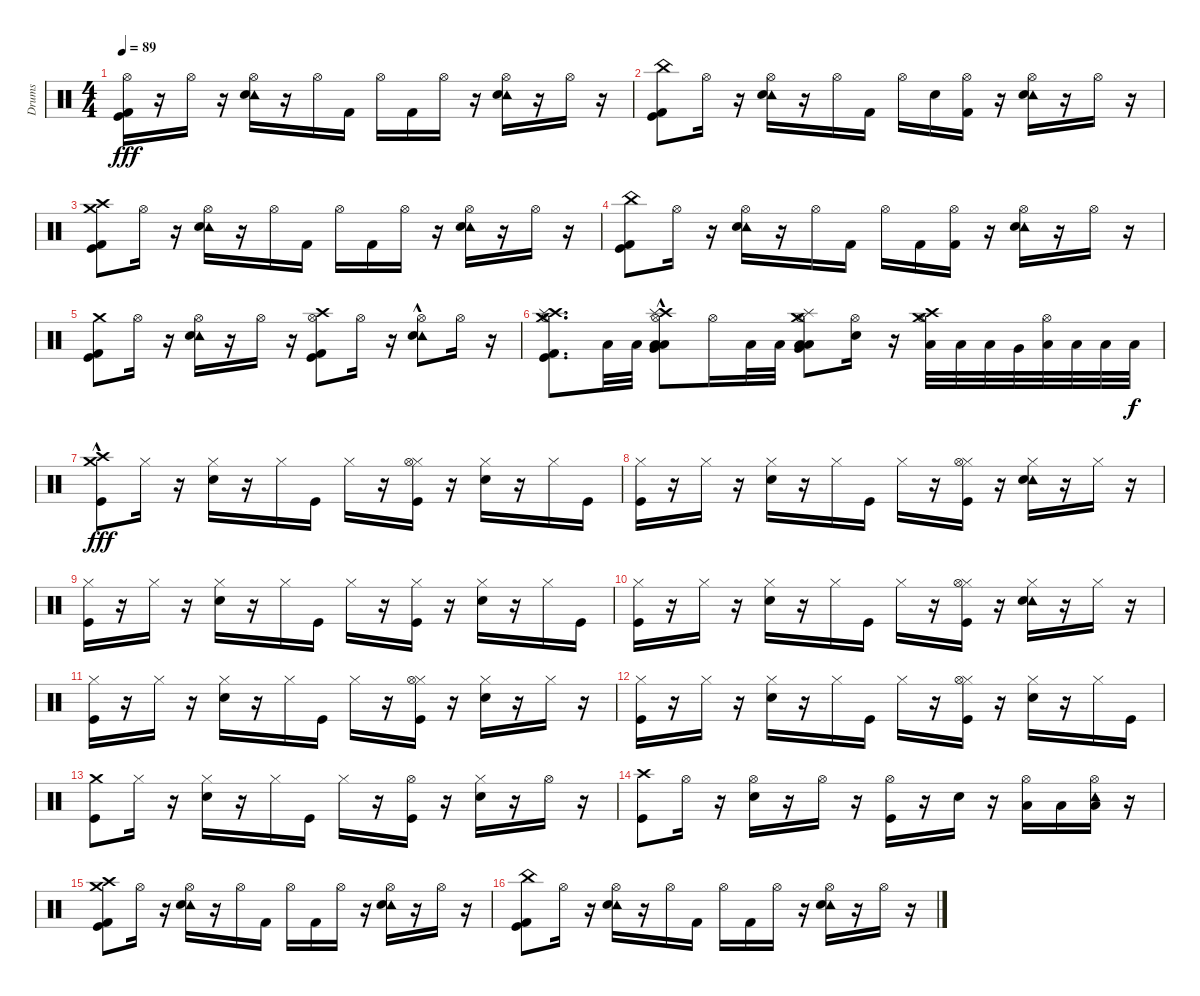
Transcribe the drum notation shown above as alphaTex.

\track ("Drums" "Drums") {instrument percussion}
\staff {score}
\articulation defaults
\ts (4 4)
\tempo 89
\clef neutral
\ks c
("Kick (hit) 2" "Kick (hit)" "Hi-Hat (open)").16{dy fff} r.16 "Hi-Hat (open)".16 r.16 ("Hi-Hat (open)" "Tambourine (hit)" "Snare (hit) 2").16 r.16 "Hi-Hat (open)".16 "Kick (hit) 2".16 "Hi-Hat (open)".16 "Kick (hit) 2".16 "Hi-Hat (open)".16 r.16 ("Hi-Hat (open)" "Tambourine (hit)" "Snare (hit) 2").16 r.16 "Hi-Hat (open)".16 r.16 |
("Kick (hit)" "Kick (hit) 2" "China (hit)").8 "Hi-Hat (open)".16 r.16 ("Hi-Hat (open)" "Tambourine (hit)" "Snare (hit) 2").16 r.16 "Hi-Hat (open)".16 "Kick (hit) 2".16 "Hi-Hat (open)".16 "Snare (hit) 2".16 ("Hi-Hat (open)" "Kick (hit) 2").16 r.16 ("Hi-Hat (open)" "Tambourine (hit)" "Snare (hit) 2").16 r.16 "Hi-Hat (open)".16 r.16 |
("Kick (hit)" "Kick (hit) 2" "Crash high (hit)" "Crash medium (hit)").8 "Hi-Hat (open)".16 r.16 ("Hi-Hat (open)" "Tambourine (hit)" "Snare (hit) 2").16 r.16 "Hi-Hat (open)".16 "Kick (hit) 2".16 "Hi-Hat (open)".16 "Kick (hit) 2".16 "Hi-Hat (open)".16 r.16 ("Hi-Hat (open)" "Tambourine (hit)" "Snare (hit) 2").16 r.16 "Hi-Hat (open)".16 r.16 |
("Kick (hit)" "Kick (hit) 2" "China (hit)").8 "Hi-Hat (open)".16 r.16 ("Hi-Hat (open)" "Tambourine (hit)" "Snare (hit) 2").16 r.16 "Hi-Hat (open)".16 "Kick (hit) 2".16 "Hi-Hat (open)".16 "Kick (hit) 2".16 ("Hi-Hat (open)" "Kick (hit) 2").16 r.16 ("Hi-Hat (open)" "Tambourine (hit)" "Snare (hit) 2").16 r.16 "Hi-Hat (open)".16 r.16 |
("Kick (hit) 2" "Kick (hit)" "Crash medium (hit)").8 "Hi-Hat (open)".16 r.16 ("Hi-Hat (open)" "Tambourine (hit)" "Snare (hit) 2").16 r.16 "Hi-Hat (open)".16 r.16 ("Hi-Hat (open)" "Crash high (hit)" "Kick (hit) 2" "Kick (hit)").8 "Hi-Hat (open)".16 r.16 ("Hi-Hat (open)" "Tambourine (hit)" "Snare (hit) 2"{hac}).8 "Hi-Hat (open)".16 r.16 |
("Kick (hit)" "Kick (hit) 2" "Crash medium (hit)" "Crash high (hit)" "Hi-Hat (open)" "Splash (hit)").8{d} "Low Tom (hit)".32 "Low Tom (hit)".32 ("Hi-Hat (open)" "Crash high (hit)"{hac} "Splash (hit)" "Very Low Tom (hit)" "Low Floor Tom (hit)" "Low Tom (hit)").8 "Hi-Hat (open)".16 "Low Tom (hit)".32 "Low Tom (hit)".32 ("Low Floor Tom (hit)" "Hi-Hat (open)" "Splash (hit)" "Crash medium (hit)" "Very Low Tom (hit)" "Low Tom (hit)").8 ("Hi-Hat (open)" "Snare (hit) 2").16 r.16 ("Hi-Hat (open)" "Crash medium (hit)" "Crash high (hit)" "Low Tom (hit)").32 "Low Tom (hit)".32 "Low Tom (hit)".32 "Very Low Tom (hit)".32 ("Hi-Hat (open)" "Low Floor Tom (hit)").32 "Low Floor Tom (hit)".32 "Low Floor Tom (hit)".32 "Low Floor Tom (hit)".32{dy f} |
("Crash medium (hit)"{hac} "Crash high (hit)"{hac} "Kick (hit)").8{dy fff} "Hi-Hat (closed)".16 r.16 ("Hi-Hat (closed)" "Snare (hit) 2").16 r.16 "Hi-Hat (closed)".16 "Kick (hit)".16 "Hi-Hat (closed)".16 r.16 ("Hi-Hat (closed)" "Kick (hit)" "Hi-Hat (open)").16 r.16 ("Hi-Hat (closed)" "Snare (hit) 2").16 r.16 "Hi-Hat (closed)".16 "Kick (hit)".16 |
("Kick (hit)" "Hi-Hat (closed)").16 r.16 "Hi-Hat (closed)".16 r.16 ("Hi-Hat (closed)" "Snare (hit) 2").16 r.16 "Hi-Hat (closed)".16 "Kick (hit)".16 "Hi-Hat (closed)".16 r.16 ("Kick (hit)" "Hi-Hat (closed)" "Hi-Hat (open)").16 r.16 ("Hi-Hat (closed)" "Tambourine (hit)" "Snare (hit) 2").16 r.16 "Hi-Hat (closed)".16 r.16 |
("Hi-Hat (closed)" "Kick (hit)").16 r.16 "Hi-Hat (closed)".16 r.16 ("Hi-Hat (closed)" "Snare (hit) 2").16 r.16 "Hi-Hat (closed)".16 "Kick (hit)".16 "Hi-Hat (closed)".16 r.16 ("Hi-Hat (closed)" "Kick (hit)").16 r.16 ("Hi-Hat (closed)" "Snare (hit) 2").16 r.16 "Hi-Hat (closed)".16 "Kick (hit)".16 |
("Kick (hit)" "Hi-Hat (closed)").16 r.16 "Hi-Hat (closed)".16 r.16 ("Hi-Hat (closed)" "Snare (hit) 2").16 r.16 "Hi-Hat (closed)".16 "Kick (hit)".16 "Hi-Hat (closed)".16 r.16 ("Kick (hit)" "Hi-Hat (closed)" "Hi-Hat (open)").16 r.16 ("Tambourine (hit)" "Hi-Hat (closed)" "Snare (hit) 2").16 r.16 "Hi-Hat (closed)".16 r.16 |
("Kick (hit)" "Hi-Hat (closed)").16 r.16 "Hi-Hat (closed)".16 r.16 ("Hi-Hat (closed)" "Snare (hit) 2").16 r.16 "Hi-Hat (closed)".16 "Kick (hit)".16 "Hi-Hat (closed)".16 r.16 ("Hi-Hat (closed)" "Kick (hit)" "Hi-Hat (open)").16 r.16 ("Hi-Hat (closed)" "Snare (hit) 2").16 r.16 "Hi-Hat (closed)".16 r.16 |
("Kick (hit)" "Hi-Hat (closed)").16 r.16 "Hi-Hat (closed)".16 r.16 ("Hi-Hat (closed)" "Snare (hit) 2").16 r.16 "Hi-Hat (closed)".16 "Kick (hit)".16 "Hi-Hat (closed)".16 r.16 ("Kick (hit)" "Hi-Hat (closed)" "Hi-Hat (open)").16 r.16 ("Hi-Hat (closed)" "Snare (hit) 2").16 r.16 "Hi-Hat (closed)".16 "Kick (hit)".16 |
("Kick (hit)" "Crash medium (hit)").8 "Hi-Hat (closed)".16 r.16 ("Hi-Hat (closed)" "Snare (hit) 2").16 r.16 "Hi-Hat (closed)".16 "Kick (hit)".16 "Hi-Hat (closed)".16 r.16 ("Hi-Hat (open)" "Kick (hit)").16 r.16 ("Hi-Hat (closed)" "Snare (hit) 2").16 r.16 "Hi-Hat (open)".16 r.16 |
("Crash high (hit)" "Kick (hit)").8 "Hi-Hat (open)".16 r.16 ("Hi-Hat (open)" "Snare (hit) 2").16 r.16 "Hi-Hat (open)".16 r.16 ("Hi-Hat (open)" "Kick (hit)").16 r.16 "Snare (hit) 2".16 r.16 ("Hi-Hat (open)" "Low Floor Tom (hit)").16 "Low Floor Tom (hit)".16 ("Hi-Hat (open)" "Tambourine (hit)" "Low Floor Tom (hit)").16 r.16 |
("Crash medium (hit)" "Crash high (hit)" "Kick (hit) 2" "Kick (hit)").8 "Hi-Hat (open)".16 r.16 ("Hi-Hat (open)" "Tambourine (hit)" "Snare (hit) 2").16 r.16 "Hi-Hat (open)".16 "Kick (hit) 2".16 "Hi-Hat (open)".16 "Kick (hit) 2".16 "Hi-Hat (open)".16 r.16 ("Hi-Hat (open)" "Tambourine (hit)" "Snare (hit) 2").16 r.16 "Hi-Hat (open)".16 r.16 |
("Kick (hit)" "Kick (hit) 2" "China (hit)").8 "Hi-Hat (open)".16 r.16 ("Hi-Hat (open)" "Tambourine (hit)" "Snare (hit) 2").16 r.16 "Hi-Hat (open)".16 "Kick (hit) 2".16 "Hi-Hat (open)".16 "Kick (hit) 2".16 "Hi-Hat (open)".16 r.16 ("Hi-Hat (open)" "Tambourine (hit)" "Snare (hit) 2").16 r.16 "Hi-Hat (open)".16 r.16
